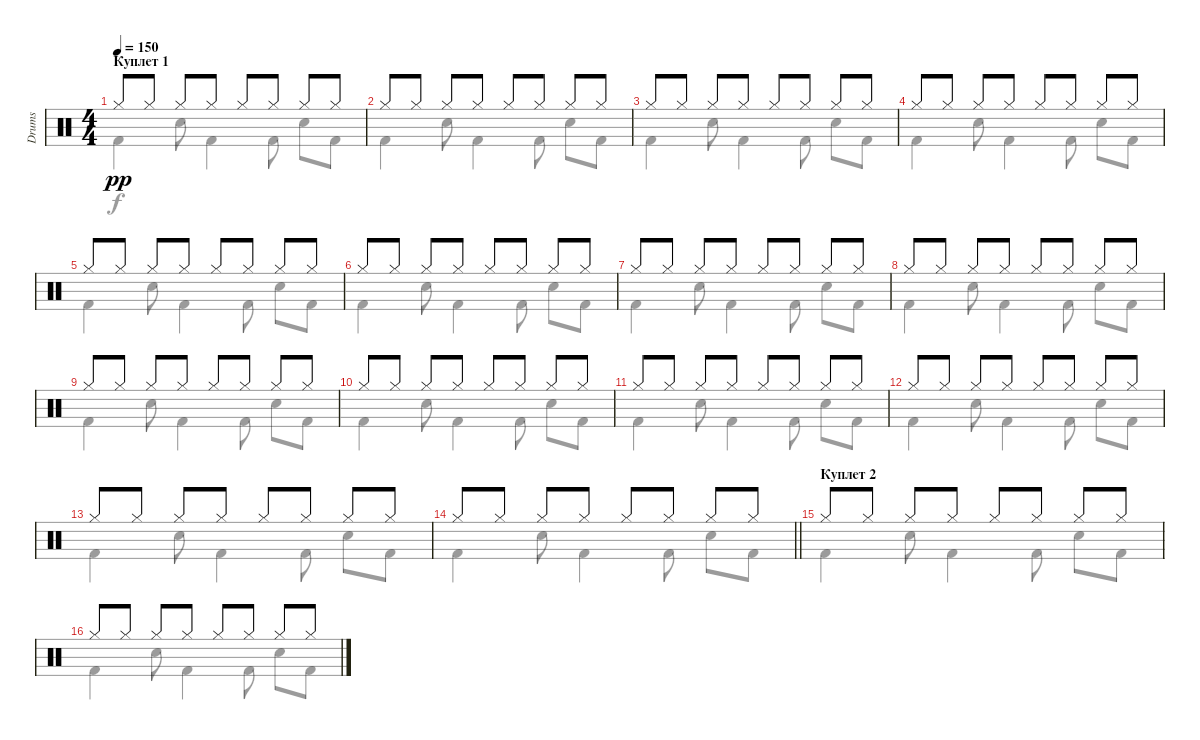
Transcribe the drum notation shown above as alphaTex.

\track ("Drums" "Drums") {instrument percussion}
\staff {score}
\articulation defaults
\voice
\ts (4 4)
\section ("" "Куплет 1")
\tempo 150
\clef neutral
\ks c "Hi-Hat (closed)".8{dy pp} "Hi-Hat (closed)".8 "Hi-Hat (closed)".8 "Hi-Hat (closed)".8 "Hi-Hat (closed)".8 "Hi-Hat (closed)".8 "Hi-Hat (closed)".8 "Hi-Hat (closed)".8
|
"Hi-Hat (closed)".8 "Hi-Hat (closed)".8 "Hi-Hat (closed)".8 "Hi-Hat (closed)".8 "Hi-Hat (closed)".8 "Hi-Hat (closed)".8 "Hi-Hat (closed)".8 "Hi-Hat (closed)".8 |
"Hi-Hat (closed)".8 "Hi-Hat (closed)".8 "Hi-Hat (closed)".8 "Hi-Hat (closed)".8 "Hi-Hat (closed)".8 "Hi-Hat (closed)".8 "Hi-Hat (closed)".8 "Hi-Hat (closed)".8 |
"Hi-Hat (closed)".8 "Hi-Hat (closed)".8 "Hi-Hat (closed)".8 "Hi-Hat (closed)".8 "Hi-Hat (closed)".8 "Hi-Hat (closed)".8 "Hi-Hat (closed)".8 "Hi-Hat (closed)".8 |
"Hi-Hat (closed)".8 "Hi-Hat (closed)".8 "Hi-Hat (closed)".8 "Hi-Hat (closed)".8 "Hi-Hat (closed)".8 "Hi-Hat (closed)".8 "Hi-Hat (closed)".8 "Hi-Hat (closed)".8 |
"Hi-Hat (closed)".8 "Hi-Hat (closed)".8 "Hi-Hat (closed)".8 "Hi-Hat (closed)".8 "Hi-Hat (closed)".8 "Hi-Hat (closed)".8 "Hi-Hat (closed)".8 "Hi-Hat (closed)".8 |
"Hi-Hat (closed)".8 "Hi-Hat (closed)".8 "Hi-Hat (closed)".8 "Hi-Hat (closed)".8 "Hi-Hat (closed)".8 "Hi-Hat (closed)".8 "Hi-Hat (closed)".8 "Hi-Hat (closed)".8 |
"Hi-Hat (closed)".8 "Hi-Hat (closed)".8 "Hi-Hat (closed)".8 "Hi-Hat (closed)".8 "Hi-Hat (closed)".8 "Hi-Hat (closed)".8 "Hi-Hat (closed)".8 "Hi-Hat (closed)".8 |
"Hi-Hat (closed)".8 "Hi-Hat (closed)".8 "Hi-Hat (closed)".8 "Hi-Hat (closed)".8 "Hi-Hat (closed)".8 "Hi-Hat (closed)".8 "Hi-Hat (closed)".8 "Hi-Hat (closed)".8 |
"Hi-Hat (closed)".8 "Hi-Hat (closed)".8 "Hi-Hat (closed)".8 "Hi-Hat (closed)".8 "Hi-Hat (closed)".8 "Hi-Hat (closed)".8 "Hi-Hat (closed)".8 "Hi-Hat (closed)".8 |
"Hi-Hat (closed)".8 "Hi-Hat (closed)".8 "Hi-Hat (closed)".8 "Hi-Hat (closed)".8 "Hi-Hat (closed)".8 "Hi-Hat (closed)".8 "Hi-Hat (closed)".8 "Hi-Hat (closed)".8 |
"Hi-Hat (closed)".8 "Hi-Hat (closed)".8 "Hi-Hat (closed)".8 "Hi-Hat (closed)".8 "Hi-Hat (closed)".8 "Hi-Hat (closed)".8 "Hi-Hat (closed)".8 "Hi-Hat (closed)".8 |
"Hi-Hat (closed)".8 "Hi-Hat (closed)".8 "Hi-Hat (closed)".8 "Hi-Hat (closed)".8 "Hi-Hat (closed)".8 "Hi-Hat (closed)".8 "Hi-Hat (closed)".8 "Hi-Hat (closed)".8 |
\barLineRight lightlight "Hi-Hat (closed)".8 "Hi-Hat (closed)".8 "Hi-Hat (closed)".8 "Hi-Hat (closed)".8 "Hi-Hat (closed)".8 "Hi-Hat (closed)".8 "Hi-Hat (closed)".8 "Hi-Hat (closed)".8
|
\section ("" "Куплет 2")
"Hi-Hat (closed)".8 "Hi-Hat (closed)".8 "Hi-Hat (closed)".8 "Hi-Hat (closed)".8 "Hi-Hat (closed)".8 "Hi-Hat (closed)".8 "Hi-Hat (closed)".8 "Hi-Hat (closed)".8 |
"Hi-Hat (closed)".8 "Hi-Hat (closed)".8 "Hi-Hat (closed)".8 "Hi-Hat (closed)".8 "Hi-Hat (closed)".8 "Hi-Hat (closed)".8 "Hi-Hat (closed)".8 "Hi-Hat (closed)".8
\voice
\clef neutral
\ottava regular
\simile none
\ks c "Kick (hit) 2".4{dy f} "Electric Snare (hit)".8 "Kick (hit) 2".4 "Kick (hit) 2".8 "Electric Snare (hit)".8 "Kick (hit) 2".8
|
"Kick (hit) 2".4 "Electric Snare (hit)".8 "Kick (hit) 2".4 "Kick (hit) 2".8 "Electric Snare (hit)".8 "Kick (hit) 2".8 |
"Kick (hit) 2".4 "Electric Snare (hit)".8 "Kick (hit) 2".4 "Kick (hit) 2".8 "Electric Snare (hit)".8 "Kick (hit) 2".8 |
"Kick (hit) 2".4 "Electric Snare (hit)".8 "Kick (hit) 2".4 "Kick (hit) 2".8 "Electric Snare (hit)".8 "Kick (hit) 2".8 |
"Kick (hit) 2".4 "Electric Snare (hit)".8 "Kick (hit) 2".4 "Kick (hit) 2".8 "Electric Snare (hit)".8 "Kick (hit) 2".8 |
"Kick (hit) 2".4 "Electric Snare (hit)".8 "Kick (hit) 2".4 "Kick (hit) 2".8 "Electric Snare (hit)".8 "Kick (hit) 2".8 |
"Kick (hit) 2".4 "Electric Snare (hit)".8 "Kick (hit) 2".4 "Kick (hit) 2".8 "Electric Snare (hit)".8 "Kick (hit) 2".8 |
"Kick (hit) 2".4 "Electric Snare (hit)".8 "Kick (hit) 2".4 "Kick (hit) 2".8 "Electric Snare (hit)".8 "Kick (hit) 2".8 |
"Kick (hit) 2".4 "Electric Snare (hit)".8 "Kick (hit) 2".4 "Kick (hit) 2".8 "Electric Snare (hit)".8 "Kick (hit) 2".8 |
"Kick (hit) 2".4 "Electric Snare (hit)".8 "Kick (hit) 2".4 "Kick (hit) 2".8 "Electric Snare (hit)".8 "Kick (hit) 2".8 |
"Kick (hit) 2".4 "Electric Snare (hit)".8 "Kick (hit) 2".4 "Kick (hit) 2".8 "Electric Snare (hit)".8 "Kick (hit) 2".8 |
"Kick (hit) 2".4 "Electric Snare (hit)".8 "Kick (hit) 2".4 "Kick (hit) 2".8 "Electric Snare (hit)".8 "Kick (hit) 2".8 |
"Kick (hit) 2".4 "Electric Snare (hit)".8 "Kick (hit) 2".4 "Kick (hit) 2".8 "Electric Snare (hit)".8 "Kick (hit) 2".8 |
\barLineRight lightlight "Kick (hit) 2".4 "Electric Snare (hit)".8 "Kick (hit) 2".4 "Kick (hit) 2".8 "Electric Snare (hit)".8 "Kick (hit) 2".8
|
"Kick (hit) 2".4 "Electric Snare (hit)".8 "Kick (hit) 2".4 "Kick (hit) 2".8 "Electric Snare (hit)".8 "Kick (hit) 2".8 |
"Kick (hit) 2".4 "Electric Snare (hit)".8 "Kick (hit) 2".4 "Kick (hit) 2".8 "Electric Snare (hit)".8 "Kick (hit) 2".8
